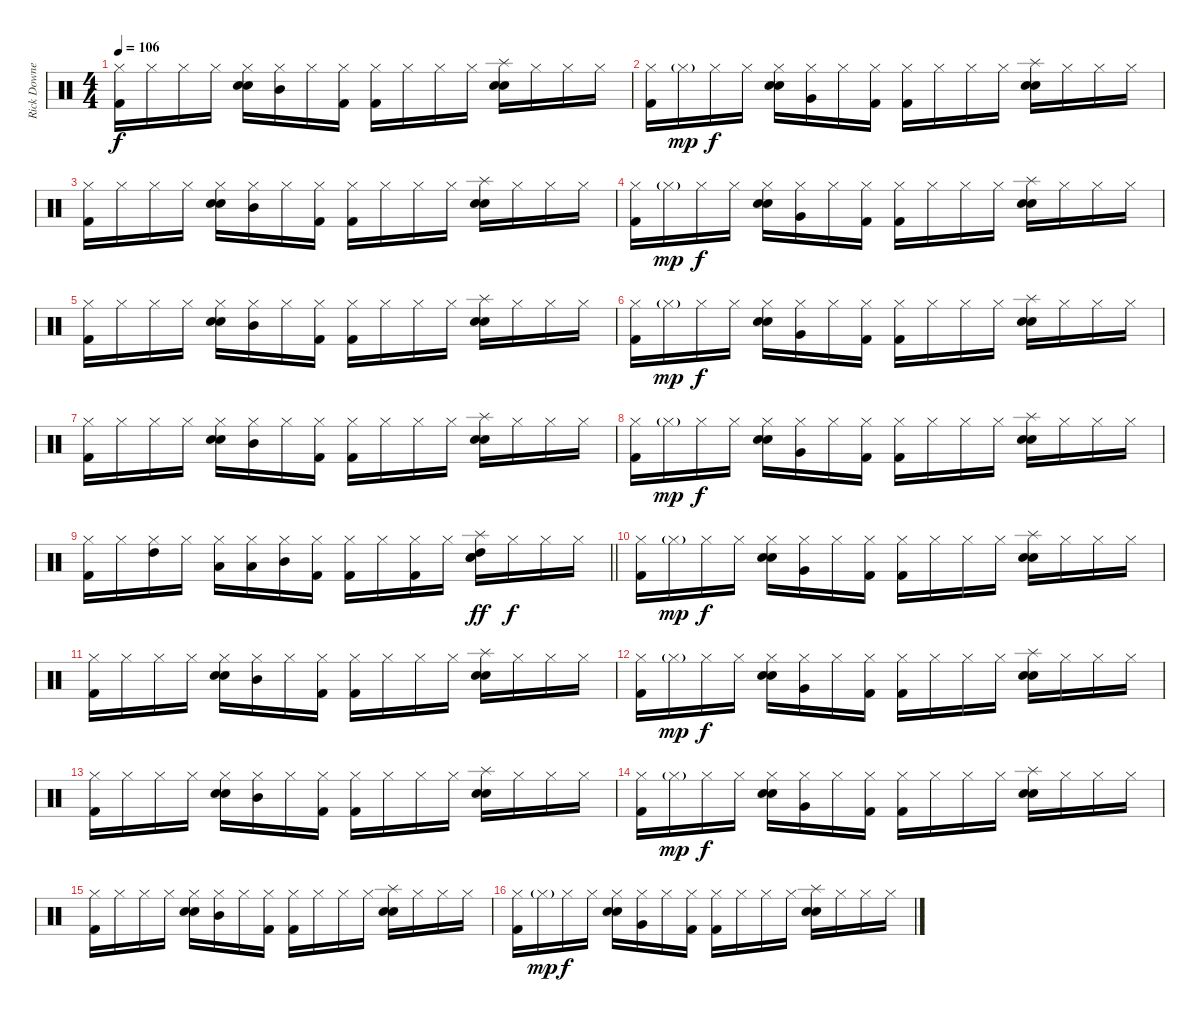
\track ("Rick Downey" "Rick Downe") {instrument percussion}
\staff {score}
\articulation defaults
\ts (4 4)
\tempo 106
\clef neutral
\ks c
("Hi-Hat (closed)" "Kick (hit) 2").16{dy f} "Hi-Hat (closed)".16 "Hi-Hat (closed)".16 "Hi-Hat (closed)".16 ("Hi-Hat (closed)" "Electric Snare (hit)" "Snare (hit) 2").16 ("Mid Tom (hit)" "Hi-Hat (closed)").16 "Hi-Hat (closed)".16 ("Hi-Hat (closed)" "Kick (hit) 2").16 ("Hi-Hat (closed)" "Kick (hit) 2").16 "Hi-Hat (closed)".16 "Hi-Hat (closed)".16 "Hi-Hat (closed)".16 ("Splash (hit)" "Electric Snare (hit)" "Snare (hit) 2").16 "Hi-Hat (closed)".16 "Hi-Hat (closed)".16 "Hi-Hat (closed)".16 |
("Hi-Hat (closed)" "Kick (hit) 2").16 "Hi-Hat (closed)"{g}.16{dy mp} "Hi-Hat (closed)".16{dy f} "Hi-Hat (closed)".16 ("Hi-Hat (closed)" "Electric Snare (hit)" "Snare (hit) 2").16 ("Hi-Hat (closed)" "Very Low Tom (hit)").16 "Hi-Hat (closed)".16 ("Hi-Hat (closed)" "Kick (hit) 2").16 ("Hi-Hat (closed)" "Kick (hit) 2").16 "Hi-Hat (closed)".16 "Hi-Hat (closed)".16 "Hi-Hat (closed)".16 ("Splash (hit)" "Electric Snare (hit)" "Snare (hit) 2").16 "Hi-Hat (closed)".16 "Hi-Hat (closed)".16 "Hi-Hat (closed)".16 |
("Hi-Hat (closed)" "Kick (hit) 2").16 "Hi-Hat (closed)".16 "Hi-Hat (closed)".16 "Hi-Hat (closed)".16 ("Hi-Hat (closed)" "Electric Snare (hit)" "Snare (hit) 2").16 ("Mid Tom (hit)" "Hi-Hat (closed)").16 "Hi-Hat (closed)".16 ("Hi-Hat (closed)" "Kick (hit) 2").16 ("Hi-Hat (closed)" "Kick (hit) 2").16 "Hi-Hat (closed)".16 "Hi-Hat (closed)".16 "Hi-Hat (closed)".16 ("Splash (hit)" "Electric Snare (hit)" "Snare (hit) 2").16 "Hi-Hat (closed)".16 "Hi-Hat (closed)".16 "Hi-Hat (closed)".16 |
("Hi-Hat (closed)" "Kick (hit) 2").16 "Hi-Hat (closed)"{g}.16{dy mp} "Hi-Hat (closed)".16{dy f} "Hi-Hat (closed)".16 ("Hi-Hat (closed)" "Electric Snare (hit)" "Snare (hit) 2").16 ("Hi-Hat (closed)" "Very Low Tom (hit)").16 "Hi-Hat (closed)".16 ("Hi-Hat (closed)" "Kick (hit) 2").16 ("Hi-Hat (closed)" "Kick (hit) 2").16 "Hi-Hat (closed)".16 "Hi-Hat (closed)".16 "Hi-Hat (closed)".16 ("Splash (hit)" "Electric Snare (hit)" "Snare (hit) 2").16 "Hi-Hat (closed)".16 "Hi-Hat (closed)".16 "Hi-Hat (closed)".16 |
("Hi-Hat (closed)" "Kick (hit) 2").16 "Hi-Hat (closed)".16 "Hi-Hat (closed)".16 "Hi-Hat (closed)".16 ("Hi-Hat (closed)" "Electric Snare (hit)" "Snare (hit) 2").16 ("Mid Tom (hit)" "Hi-Hat (closed)").16 "Hi-Hat (closed)".16 ("Hi-Hat (closed)" "Kick (hit) 2").16 ("Hi-Hat (closed)" "Kick (hit) 2").16 "Hi-Hat (closed)".16 "Hi-Hat (closed)".16 "Hi-Hat (closed)".16 ("Splash (hit)" "Electric Snare (hit)" "Snare (hit) 2").16 "Hi-Hat (closed)".16 "Hi-Hat (closed)".16 "Hi-Hat (closed)".16 |
("Hi-Hat (closed)" "Kick (hit) 2").16 "Hi-Hat (closed)"{g}.16{dy mp} "Hi-Hat (closed)".16{dy f} "Hi-Hat (closed)".16 ("Hi-Hat (closed)" "Electric Snare (hit)" "Snare (hit) 2").16 ("Hi-Hat (closed)" "Very Low Tom (hit)").16 "Hi-Hat (closed)".16 ("Hi-Hat (closed)" "Kick (hit) 2").16 ("Hi-Hat (closed)" "Kick (hit) 2").16 "Hi-Hat (closed)".16 "Hi-Hat (closed)".16 "Hi-Hat (closed)".16 ("Splash (hit)" "Electric Snare (hit)" "Snare (hit) 2").16 "Hi-Hat (closed)".16 "Hi-Hat (closed)".16 "Hi-Hat (closed)".16 |
("Hi-Hat (closed)" "Kick (hit) 2").16 "Hi-Hat (closed)".16 "Hi-Hat (closed)".16 "Hi-Hat (closed)".16 ("Hi-Hat (closed)" "Electric Snare (hit)" "Snare (hit) 2").16 ("Mid Tom (hit)" "Hi-Hat (closed)").16 "Hi-Hat (closed)".16 ("Hi-Hat (closed)" "Kick (hit) 2").16 ("Hi-Hat (closed)" "Kick (hit) 2").16 "Hi-Hat (closed)".16 "Hi-Hat (closed)".16 "Hi-Hat (closed)".16 ("Splash (hit)" "Electric Snare (hit)" "Snare (hit) 2").16 "Hi-Hat (closed)".16 "Hi-Hat (closed)".16 "Hi-Hat (closed)".16 |
("Hi-Hat (closed)" "Kick (hit) 2").16 "Hi-Hat (closed)"{g}.16{dy mp} "Hi-Hat (closed)".16{dy f} "Hi-Hat (closed)".16 ("Hi-Hat (closed)" "Electric Snare (hit)" "Snare (hit) 2").16 ("Hi-Hat (closed)" "Very Low Tom (hit)").16 "Hi-Hat (closed)".16 ("Hi-Hat (closed)" "Kick (hit) 2").16 ("Hi-Hat (closed)" "Kick (hit) 2").16 "Hi-Hat (closed)".16 "Hi-Hat (closed)".16 "Hi-Hat (closed)".16 ("Splash (hit)" "Electric Snare (hit)" "Snare (hit) 2").16 "Hi-Hat (closed)".16 "Hi-Hat (closed)".16 "Hi-Hat (closed)".16 |
\barLineRight lightlight
("Hi-Hat (closed)" "Kick (hit) 2").16 "Hi-Hat (closed)".16 ("High Tom (hit)" "Hi-Hat (closed)").16 "Hi-Hat (closed)".16 ("Low Tom (hit)" "Hi-Hat (closed)").16 ("Low Tom (hit)" "Hi-Hat (closed)").16 ("Mid Tom (hit)" "Hi-Hat (closed)").16 ("Hi-Hat (closed)" "Kick (hit) 2").16 ("Hi-Hat (closed)" "Kick (hit) 2").16 "Hi-Hat (closed)".16 ("Hi-Hat (closed)" "Kick (hit) 2").16 "Hi-Hat (closed)".16 ("Splash (hit)" "High Tom (hit)" "Electric Snare (hit)" "Snare (hit) 2").16{dy ff} "Hi-Hat (closed)".16{dy f} "Hi-Hat (closed)".16 "Hi-Hat (closed)".16 |
("Hi-Hat (closed)" "Kick (hit) 2").16 "Hi-Hat (closed)"{g}.16{dy mp} "Hi-Hat (closed)".16{dy f} "Hi-Hat (closed)".16 ("Hi-Hat (closed)" "Electric Snare (hit)" "Snare (hit) 2").16 ("Hi-Hat (closed)" "Very Low Tom (hit)").16 "Hi-Hat (closed)".16 ("Hi-Hat (closed)" "Kick (hit) 2").16 ("Hi-Hat (closed)" "Kick (hit) 2").16 "Hi-Hat (closed)".16 "Hi-Hat (closed)".16 "Hi-Hat (closed)".16 ("Splash (hit)" "Electric Snare (hit)" "Snare (hit) 2").16 "Hi-Hat (closed)".16 "Hi-Hat (closed)".16 "Hi-Hat (closed)".16 |
("Hi-Hat (closed)" "Kick (hit) 2").16 "Hi-Hat (closed)".16 "Hi-Hat (closed)".16 "Hi-Hat (closed)".16 ("Hi-Hat (closed)" "Electric Snare (hit)" "Snare (hit) 2").16 ("Mid Tom (hit)" "Hi-Hat (closed)").16 "Hi-Hat (closed)".16 ("Hi-Hat (closed)" "Kick (hit) 2").16 ("Hi-Hat (closed)" "Kick (hit) 2").16 "Hi-Hat (closed)".16 "Hi-Hat (closed)".16 "Hi-Hat (closed)".16 ("Splash (hit)" "Electric Snare (hit)" "Snare (hit) 2").16 "Hi-Hat (closed)".16 "Hi-Hat (closed)".16 "Hi-Hat (closed)".16 |
("Hi-Hat (closed)" "Kick (hit) 2").16 "Hi-Hat (closed)"{g}.16{dy mp} "Hi-Hat (closed)".16{dy f} "Hi-Hat (closed)".16 ("Hi-Hat (closed)" "Electric Snare (hit)" "Snare (hit) 2").16 ("Hi-Hat (closed)" "Very Low Tom (hit)").16 "Hi-Hat (closed)".16 ("Hi-Hat (closed)" "Kick (hit) 2").16 ("Hi-Hat (closed)" "Kick (hit) 2").16 "Hi-Hat (closed)".16 "Hi-Hat (closed)".16 "Hi-Hat (closed)".16 ("Splash (hit)" "Electric Snare (hit)" "Snare (hit) 2").16 "Hi-Hat (closed)".16 "Hi-Hat (closed)".16 "Hi-Hat (closed)".16 |
("Hi-Hat (closed)" "Kick (hit) 2").16 "Hi-Hat (closed)".16 "Hi-Hat (closed)".16 "Hi-Hat (closed)".16 ("Hi-Hat (closed)" "Electric Snare (hit)" "Snare (hit) 2").16 ("Mid Tom (hit)" "Hi-Hat (closed)").16 "Hi-Hat (closed)".16 ("Hi-Hat (closed)" "Kick (hit) 2").16 ("Hi-Hat (closed)" "Kick (hit) 2").16 "Hi-Hat (closed)".16 "Hi-Hat (closed)".16 "Hi-Hat (closed)".16 ("Splash (hit)" "Electric Snare (hit)" "Snare (hit) 2").16 "Hi-Hat (closed)".16 "Hi-Hat (closed)".16 "Hi-Hat (closed)".16 |
("Hi-Hat (closed)" "Kick (hit) 2").16 "Hi-Hat (closed)"{g}.16{dy mp} "Hi-Hat (closed)".16{dy f} "Hi-Hat (closed)".16 ("Hi-Hat (closed)" "Electric Snare (hit)" "Snare (hit) 2").16 ("Hi-Hat (closed)" "Very Low Tom (hit)").16 "Hi-Hat (closed)".16 ("Hi-Hat (closed)" "Kick (hit) 2").16 ("Hi-Hat (closed)" "Kick (hit) 2").16 "Hi-Hat (closed)".16 "Hi-Hat (closed)".16 "Hi-Hat (closed)".16 ("Splash (hit)" "Electric Snare (hit)" "Snare (hit) 2").16 "Hi-Hat (closed)".16 "Hi-Hat (closed)".16 "Hi-Hat (closed)".16 |
("Hi-Hat (closed)" "Kick (hit) 2").16 "Hi-Hat (closed)".16 "Hi-Hat (closed)".16 "Hi-Hat (closed)".16 ("Hi-Hat (closed)" "Electric Snare (hit)" "Snare (hit) 2").16 ("Mid Tom (hit)" "Hi-Hat (closed)").16 "Hi-Hat (closed)".16 ("Hi-Hat (closed)" "Kick (hit) 2").16 ("Hi-Hat (closed)" "Kick (hit) 2").16 "Hi-Hat (closed)".16 "Hi-Hat (closed)".16 "Hi-Hat (closed)".16 ("Splash (hit)" "Electric Snare (hit)" "Snare (hit) 2").16 "Hi-Hat (closed)".16 "Hi-Hat (closed)".16 "Hi-Hat (closed)".16 |
("Hi-Hat (closed)" "Kick (hit) 2").16 "Hi-Hat (closed)"{g}.16{dy mp} "Hi-Hat (closed)".16{dy f} "Hi-Hat (closed)".16 ("Hi-Hat (closed)" "Electric Snare (hit)" "Snare (hit) 2").16 ("Hi-Hat (closed)" "Very Low Tom (hit)").16 "Hi-Hat (closed)".16 ("Hi-Hat (closed)" "Kick (hit) 2").16 ("Hi-Hat (closed)" "Kick (hit) 2").16 "Hi-Hat (closed)".16 "Hi-Hat (closed)".16 "Hi-Hat (closed)".16 ("Splash (hit)" "Electric Snare (hit)" "Snare (hit) 2").16 "Hi-Hat (closed)".16 "Hi-Hat (closed)".16 "Hi-Hat (closed)".16
